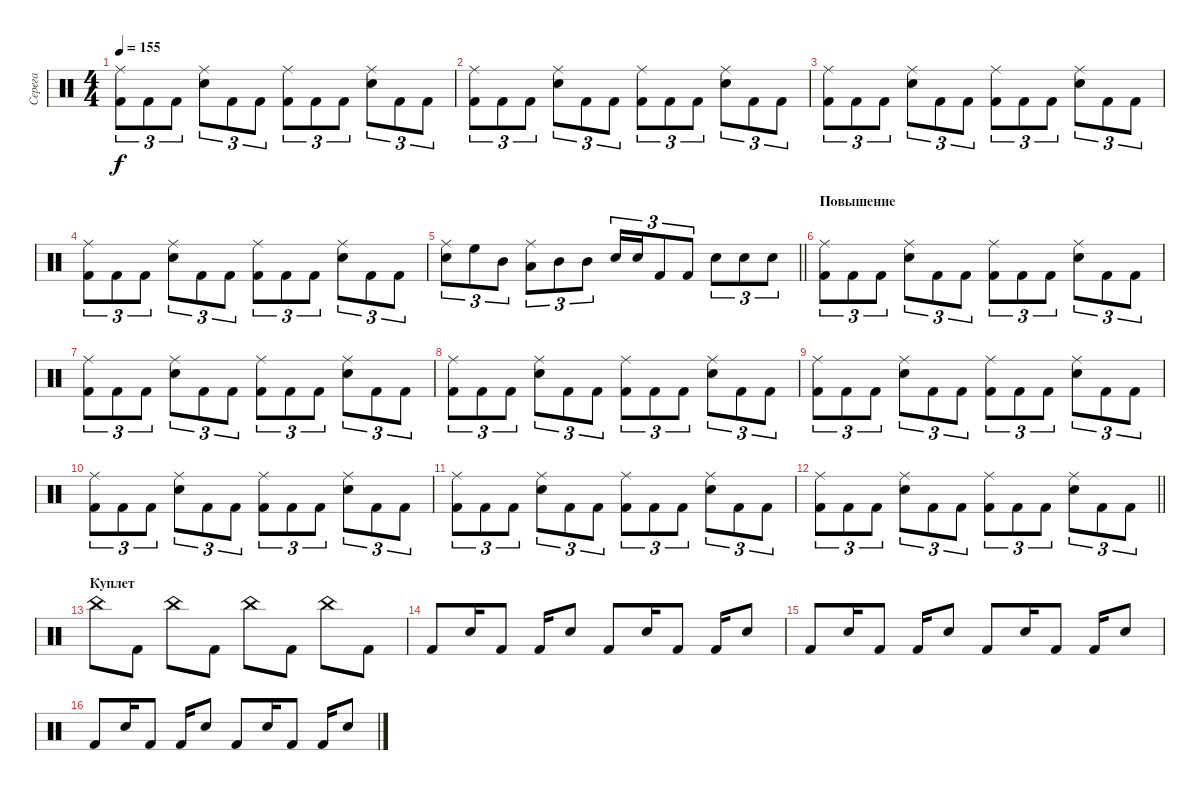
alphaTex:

\track ("Серега" "Серега") {instrument percussion}
\staff {score}
\articulation defaults
\ts (4 4)
\tempo 155
\clef neutral
\ks c
("Ride (middle)" "Kick (hit) 2").8{tu (3 2) dy f} "Kick (hit) 2".8{tu (3 2)} "Kick (hit) 2".8{tu (3 2)} ("Ride (middle)" "Snare (hit) 2").8{tu (3 2)} "Kick (hit) 2".8{tu (3 2)} "Kick (hit) 2".8{tu (3 2)} ("Ride (middle)" "Kick (hit) 2").8{tu (3 2)} "Kick (hit) 2".8{tu (3 2)} "Kick (hit) 2".8{tu (3 2)} ("Ride (middle)" "Snare (hit) 2").8{tu (3 2)} "Kick (hit) 2".8{tu (3 2)} "Kick (hit) 2".8{tu (3 2)} |
("Ride (middle)" "Kick (hit) 2").8{tu (3 2)} "Kick (hit) 2".8{tu (3 2)} "Kick (hit) 2".8{tu (3 2)} ("Ride (middle)" "Snare (hit) 2").8{tu (3 2)} "Kick (hit) 2".8{tu (3 2)} "Kick (hit) 2".8{tu (3 2)} ("Ride (middle)" "Kick (hit) 2").8{tu (3 2)} "Kick (hit) 2".8{tu (3 2)} "Kick (hit) 2".8{tu (3 2)} ("Ride (middle)" "Snare (hit) 2").8{tu (3 2)} "Kick (hit) 2".8{tu (3 2)} "Kick (hit) 2".8{tu (3 2)} |
("Ride (middle)" "Kick (hit) 2").8{tu (3 2)} "Kick (hit) 2".8{tu (3 2)} "Kick (hit) 2".8{tu (3 2)} ("Ride (middle)" "Snare (hit) 2").8{tu (3 2)} "Kick (hit) 2".8{tu (3 2)} "Kick (hit) 2".8{tu (3 2)} ("Ride (middle)" "Kick (hit) 2").8{tu (3 2)} "Kick (hit) 2".8{tu (3 2)} "Kick (hit) 2".8{tu (3 2)} ("Ride (middle)" "Snare (hit) 2").8{tu (3 2)} "Kick (hit) 2".8{tu (3 2)} "Kick (hit) 2".8{tu (3 2)} |
("Ride (middle)" "Kick (hit) 2").8{tu (3 2)} "Kick (hit) 2".8{tu (3 2)} "Kick (hit) 2".8{tu (3 2)} ("Ride (middle)" "Snare (hit) 2").8{tu (3 2)} "Kick (hit) 2".8{tu (3 2)} "Kick (hit) 2".8{tu (3 2)} ("Ride (middle)" "Kick (hit) 2").8{tu (3 2)} "Kick (hit) 2".8{tu (3 2)} "Kick (hit) 2".8{tu (3 2)} ("Ride (middle)" "Snare (hit) 2").8{tu (3 2)} "Kick (hit) 2".8{tu (3 2)} "Kick (hit) 2".8{tu (3 2)} |
\barLineRight lightlight
("Ride (middle)" "Snare (hit) 2").8{tu (3 2)} "High Floor Tom (hit)".8{tu (3 2)} "Mid Tom (hit)".8{tu (3 2)} ("Ride (middle)" "Low Tom (hit)").8{tu (3 2)} "Mid Tom (hit)".8{tu (3 2)} "Mid Tom (hit)".8{tu (3 2)} "Snare (hit) 2".16{tu (3 2)} "Snare (hit) 2".16{tu (3 2)} "Kick (hit) 2".8{tu (3 2)} "Kick (hit) 2".8{tu (3 2)} "Snare (hit) 2".8{tu (3 2)} "Snare (hit) 2".8{tu (3 2)} "Snare (hit) 2".8{tu (3 2)} |
\section ("" "Повышение")
("Ride (middle)" "Kick (hit) 2").8{tu (3 2)} "Kick (hit) 2".8{tu (3 2)} "Kick (hit) 2".8{tu (3 2)} ("Ride (middle)" "Snare (hit) 2").8{tu (3 2)} "Kick (hit) 2".8{tu (3 2)} "Kick (hit) 2".8{tu (3 2)} ("Ride (middle)" "Kick (hit) 2").8{tu (3 2)} "Kick (hit) 2".8{tu (3 2)} "Kick (hit) 2".8{tu (3 2)} ("Ride (middle)" "Snare (hit) 2").8{tu (3 2)} "Kick (hit) 2".8{tu (3 2)} "Kick (hit) 2".8{tu (3 2)} |
("Ride (middle)" "Kick (hit) 2").8{tu (3 2)} "Kick (hit) 2".8{tu (3 2)} "Kick (hit) 2".8{tu (3 2)} ("Ride (middle)" "Snare (hit) 2").8{tu (3 2)} "Kick (hit) 2".8{tu (3 2)} "Kick (hit) 2".8{tu (3 2)} ("Ride (middle)" "Kick (hit) 2").8{tu (3 2)} "Kick (hit) 2".8{tu (3 2)} "Kick (hit) 2".8{tu (3 2)} ("Ride (middle)" "Snare (hit) 2").8{tu (3 2)} "Kick (hit) 2".8{tu (3 2)} "Kick (hit) 2".8{tu (3 2)} |
("Ride (middle)" "Kick (hit) 2").8{tu (3 2)} "Kick (hit) 2".8{tu (3 2)} "Kick (hit) 2".8{tu (3 2)} ("Ride (middle)" "Snare (hit) 2").8{tu (3 2)} "Kick (hit) 2".8{tu (3 2)} "Kick (hit) 2".8{tu (3 2)} ("Ride (middle)" "Kick (hit) 2").8{tu (3 2)} "Kick (hit) 2".8{tu (3 2)} "Kick (hit) 2".8{tu (3 2)} ("Ride (middle)" "Snare (hit) 2").8{tu (3 2)} "Kick (hit) 2".8{tu (3 2)} "Kick (hit) 2".8{tu (3 2)} |
("Ride (middle)" "Kick (hit) 2").8{tu (3 2)} "Kick (hit) 2".8{tu (3 2)} "Kick (hit) 2".8{tu (3 2)} ("Ride (middle)" "Snare (hit) 2").8{tu (3 2)} "Kick (hit) 2".8{tu (3 2)} "Kick (hit) 2".8{tu (3 2)} ("Ride (middle)" "Kick (hit) 2").8{tu (3 2)} "Kick (hit) 2".8{tu (3 2)} "Kick (hit) 2".8{tu (3 2)} ("Ride (middle)" "Snare (hit) 2").8{tu (3 2)} "Kick (hit) 2".8{tu (3 2)} "Kick (hit) 2".8{tu (3 2)} |
("Ride (middle)" "Kick (hit) 2").8{tu (3 2)} "Kick (hit) 2".8{tu (3 2)} "Kick (hit) 2".8{tu (3 2)} ("Ride (middle)" "Snare (hit) 2").8{tu (3 2)} "Kick (hit) 2".8{tu (3 2)} "Kick (hit) 2".8{tu (3 2)} ("Ride (middle)" "Kick (hit) 2").8{tu (3 2)} "Kick (hit) 2".8{tu (3 2)} "Kick (hit) 2".8{tu (3 2)} ("Ride (middle)" "Snare (hit) 2").8{tu (3 2)} "Kick (hit) 2".8{tu (3 2)} "Kick (hit) 2".8{tu (3 2)} |
("Ride (middle)" "Kick (hit) 2").8{tu (3 2)} "Kick (hit) 2".8{tu (3 2)} "Kick (hit) 2".8{tu (3 2)} ("Ride (middle)" "Snare (hit) 2").8{tu (3 2)} "Kick (hit) 2".8{tu (3 2)} "Kick (hit) 2".8{tu (3 2)} ("Ride (middle)" "Kick (hit) 2").8{tu (3 2)} "Kick (hit) 2".8{tu (3 2)} "Kick (hit) 2".8{tu (3 2)} ("Ride (middle)" "Snare (hit) 2").8{tu (3 2)} "Kick (hit) 2".8{tu (3 2)} "Kick (hit) 2".8{tu (3 2)} |
\barLineRight lightlight
("Ride (middle)" "Kick (hit) 2").8{tu (3 2)} "Kick (hit) 2".8{tu (3 2)} "Kick (hit) 2".8{tu (3 2)} ("Ride (middle)" "Snare (hit) 2").8{tu (3 2)} "Kick (hit) 2".8{tu (3 2)} "Kick (hit) 2".8{tu (3 2)} ("Ride (middle)" "Kick (hit) 2").8{tu (3 2)} "Kick (hit) 2".8{tu (3 2)} "Kick (hit) 2".8{tu (3 2)} ("Ride (middle)" "Snare (hit) 2").8{tu (3 2)} "Kick (hit) 2".8{tu (3 2)} "Kick (hit) 2".8{tu (3 2)} |
\section ("" "Куплет")
"China (hit)".8 "Kick (hit) 2".8 "China (hit)".8 "Kick (hit) 2".8 "China (hit)".8 "Kick (hit) 2".8 "China (hit)".8 "Kick (hit) 2".8 |
"Kick (hit) 2".8 "Snare (hit) 2".16 "Kick (hit) 2".8 "Kick (hit) 2".16 "Snare (hit) 2".8 "Kick (hit) 2".8 "Snare (hit) 2".16 "Kick (hit) 2".8 "Kick (hit) 2".16 "Snare (hit) 2".8 |
"Kick (hit) 2".8 "Snare (hit) 2".16 "Kick (hit) 2".8 "Kick (hit) 2".16 "Snare (hit) 2".8 "Kick (hit) 2".8 "Snare (hit) 2".16 "Kick (hit) 2".8 "Kick (hit) 2".16 "Snare (hit) 2".8 |
"Kick (hit) 2".8 "Snare (hit) 2".16 "Kick (hit) 2".8 "Kick (hit) 2".16 "Snare (hit) 2".8 "Kick (hit) 2".8 "Snare (hit) 2".16 "Kick (hit) 2".8 "Kick (hit) 2".16 "Snare (hit) 2".8
